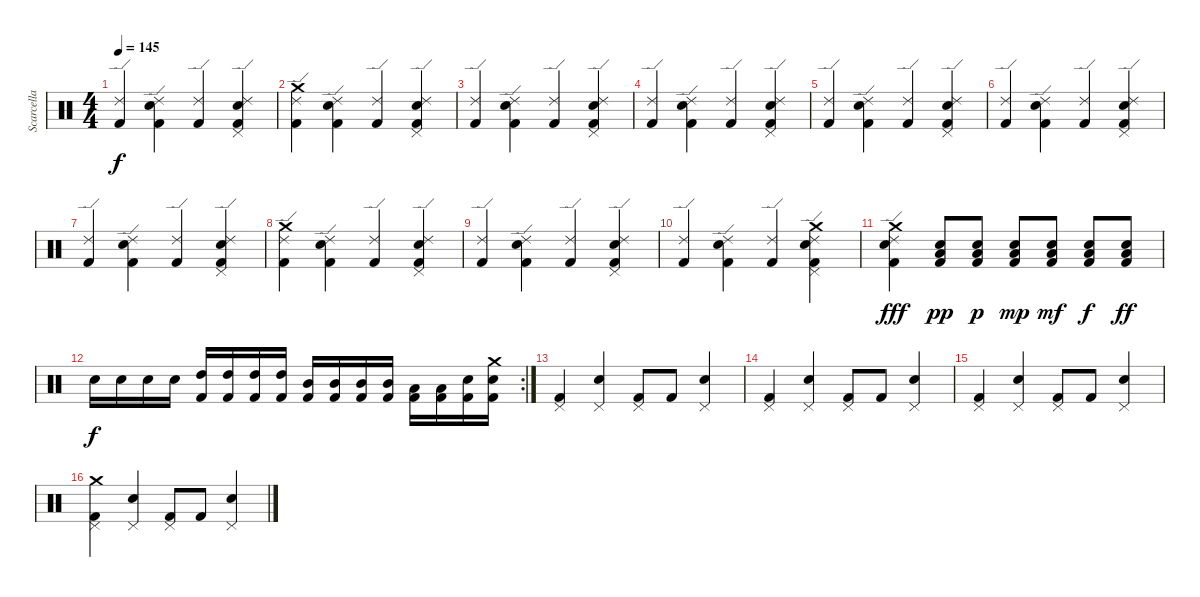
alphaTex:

\track ("Scarcella" "Scarcella") {instrument percussion}
\staff {score}
\articulation defaults
\ts (4 4)
\tempo 145
\clef neutral
\ks c
("Ride (edge) 2" "Kick (hit) 2").4{dy f} ("Ride (edge) 2" "Snare (hit) 2" "Kick (hit) 2").4 ("Ride (edge) 2" "Kick (hit) 2").4 ("Pedal Hi-Hat (hit)" "Ride (edge) 2" "Snare (hit) 2" "Kick (hit) 2").4 |
("Crash medium (hit)" "Ride (edge) 2" "Kick (hit) 2").4 ("Ride (edge) 2" "Snare (hit) 2" "Kick (hit) 2").4 ("Ride (edge) 2" "Kick (hit) 2").4 ("Pedal Hi-Hat (hit)" "Ride (edge) 2" "Snare (hit) 2" "Kick (hit) 2").4 |
("Ride (edge) 2" "Kick (hit) 2").4 ("Ride (edge) 2" "Snare (hit) 2" "Kick (hit) 2").4 ("Ride (edge) 2" "Kick (hit) 2").4 ("Pedal Hi-Hat (hit)" "Ride (edge) 2" "Snare (hit) 2" "Kick (hit) 2").4 |
("Ride (edge) 2" "Kick (hit) 2").4 ("Ride (edge) 2" "Snare (hit) 2" "Kick (hit) 2").4 ("Ride (edge) 2" "Kick (hit) 2").4 ("Pedal Hi-Hat (hit)" "Ride (edge) 2" "Snare (hit) 2" "Kick (hit) 2").4 |
("Ride (edge) 2" "Kick (hit) 2").4 ("Ride (edge) 2" "Snare (hit) 2" "Kick (hit) 2").4 ("Ride (edge) 2" "Kick (hit) 2").4 ("Pedal Hi-Hat (hit)" "Ride (edge) 2" "Snare (hit) 2" "Kick (hit) 2").4 |
("Ride (edge) 2" "Kick (hit) 2").4 ("Ride (edge) 2" "Snare (hit) 2" "Kick (hit) 2").4 ("Ride (edge) 2" "Kick (hit) 2").4 ("Pedal Hi-Hat (hit)" "Ride (edge) 2" "Snare (hit) 2" "Kick (hit) 2").4 |
("Ride (edge) 2" "Kick (hit) 2").4 ("Ride (edge) 2" "Snare (hit) 2" "Kick (hit) 2").4 ("Ride (edge) 2" "Kick (hit) 2").4 ("Pedal Hi-Hat (hit)" "Ride (edge) 2" "Snare (hit) 2" "Kick (hit) 2").4 |
("Crash medium (hit)" "Ride (edge) 2" "Kick (hit) 2").4 ("Ride (edge) 2" "Snare (hit) 2" "Kick (hit) 2").4 ("Ride (edge) 2" "Kick (hit) 2").4 ("Pedal Hi-Hat (hit)" "Ride (edge) 2" "Snare (hit) 2" "Kick (hit) 2").4 |
("Ride (edge) 2" "Kick (hit) 2").4 ("Ride (edge) 2" "Snare (hit) 2" "Kick (hit) 2").4 ("Ride (edge) 2" "Kick (hit) 2").4 ("Pedal Hi-Hat (hit)" "Ride (edge) 2" "Snare (hit) 2" "Kick (hit) 2").4 |
("Ride (edge) 2" "Kick (hit) 2").4 ("Ride (edge) 2" "Snare (hit) 2" "Kick (hit) 2").4 ("Ride (edge) 2" "Kick (hit) 2").4 ("Pedal Hi-Hat (hit)" "Ride (edge) 2" "Snare (hit) 2" "Crash medium (hit)" "Kick (hit) 2").4 |
("Snare (hit) 2" "Ride (edge) 2" "Crash medium (hit)" "Kick (hit) 2").4{dy fff} ("Kick (hit) 2" "Low Floor Tom (hit)" "Snare (hit) 2").8{dy pp} ("Kick (hit) 2" "Low Floor Tom (hit)" "Snare (hit) 2").8{dy p} ("Kick (hit) 2" "Low Floor Tom (hit)" "Snare (hit) 2").8{dy mp} ("Kick (hit) 2" "Low Floor Tom (hit)" "Snare (hit) 2").8{dy mf} ("Kick (hit) 2" "Low Floor Tom (hit)" "Snare (hit) 2").8{dy f} ("Kick (hit) 2" "Low Floor Tom (hit)" "Snare (hit) 2").8{dy ff} |
\rc 2 "Snare (hit) 2".16{dy f} "Snare (hit) 2".16 "Snare (hit) 2".16 "Snare (hit) 2".16
("High Tom (hit)" "Kick (hit) 2").16 ("High Tom (hit)" "Kick (hit) 2").16 ("High Tom (hit)" "Kick (hit) 2").16 ("High Tom (hit)" "Kick (hit) 2").16 ("Mid Tom (hit)" "Kick (hit) 2").16 ("Mid Tom (hit)" "Kick (hit) 2").16 ("Mid Tom (hit)" "Kick (hit) 2").16 ("Mid Tom (hit)" "Kick (hit) 2").16 ("Low Tom (hit)" "Kick (hit) 2").16 ("Low Tom (hit)" "Kick (hit) 2").16 ("Snare (hit) 2" "Kick (hit) 2").16 ("Crash medium (hit)" "Snare (hit) 2" "Kick (hit) 2").16 |
("Pedal Hi-Hat (hit)" "Kick (hit) 2").4 ("Pedal Hi-Hat (hit)" "Snare (hit) 2").4 ("Pedal Hi-Hat (hit)" "Kick (hit) 2").8 "Kick (hit) 2".8 ("Pedal Hi-Hat (hit)" "Snare (hit) 2").4 |
("Pedal Hi-Hat (hit)" "Kick (hit) 2").4 ("Pedal Hi-Hat (hit)" "Snare (hit) 2").4 ("Pedal Hi-Hat (hit)" "Kick (hit) 2").8 "Kick (hit) 2".8 ("Pedal Hi-Hat (hit)" "Snare (hit) 2").4 |
("Pedal Hi-Hat (hit)" "Kick (hit) 2").4 ("Pedal Hi-Hat (hit)" "Snare (hit) 2").4 ("Pedal Hi-Hat (hit)" "Kick (hit) 2").8 "Kick (hit) 2".8 ("Pedal Hi-Hat (hit)" "Snare (hit) 2").4 |
("Pedal Hi-Hat (hit)" "Crash medium (hit)" "Kick (hit) 2").4 ("Pedal Hi-Hat (hit)" "Snare (hit) 2").4 ("Pedal Hi-Hat (hit)" "Kick (hit) 2").8 "Kick (hit) 2".8 ("Pedal Hi-Hat (hit)" "Snare (hit) 2").4
